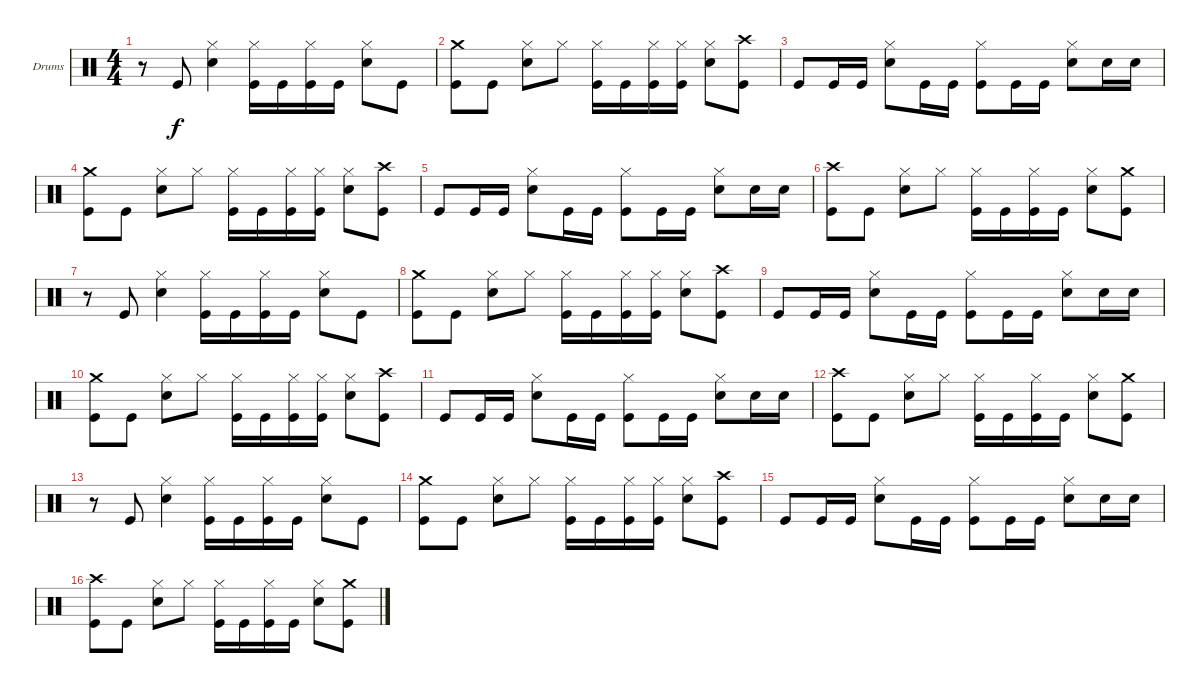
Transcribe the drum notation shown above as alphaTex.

\bracketExtendMode groupsimilarinstruments
\firstSystemTrackNameOrientation horizontal
\otherSystemsTrackNameOrientation horizontal
\track ("Percussion" "Drums") {instrument percussion}
\staff {score}
\articulation defaults
\ts (4 4)
\tempo (142 hide)
\clef neutral
\ks c
r.8{dy f} "Kick (hit)".8 ("Hi-Hat (closed)" "Snare (hit) 2").4 ("Hi-Hat (closed)" "Kick (hit)").16 "Kick (hit)".16 ("Hi-Hat (closed)" "Kick (hit)").16 "Kick (hit)".16 ("Hi-Hat (closed)" "Snare (hit) 2").8 "Kick (hit)".8 |
("Crash medium (hit)" "Kick (hit)").8 "Kick (hit)".8 ("Hi-Hat (closed)" "Snare (hit) 2").8 "Hi-Hat (closed)".8 ("Hi-Hat (closed)" "Kick (hit)").16 "Kick (hit)".16 ("Hi-Hat (closed)" "Kick (hit)").16 ("Hi-Hat (closed)" "Kick (hit)").16 ("Hi-Hat (closed)" "Snare (hit) 2").8 ("Crash high (hit)" "Kick (hit)").8 |
"Kick (hit)".8 "Kick (hit)".16 "Kick (hit)".16 ("Hi-Hat (closed)" "Snare (hit) 2").8 "Kick (hit)".16 "Kick (hit)".16 ("Hi-Hat (closed)" "Kick (hit)").8 "Kick (hit)".16 "Kick (hit)".16 ("Hi-Hat (closed)" "Snare (hit) 2").8 "Snare (hit) 2".16 "Snare (hit) 2".16 |
("Crash medium (hit)" "Kick (hit)").8 "Kick (hit)".8 ("Hi-Hat (closed)" "Snare (hit) 2").8 "Hi-Hat (closed)".8 ("Hi-Hat (closed)" "Kick (hit)").16 "Kick (hit)".16 ("Hi-Hat (closed)" "Kick (hit)").16 ("Hi-Hat (closed)" "Kick (hit)").16 ("Hi-Hat (closed)" "Snare (hit) 2").8 ("Crash high (hit)" "Kick (hit)").8 |
"Kick (hit)".8 "Kick (hit)".16 "Kick (hit)".16 ("Hi-Hat (closed)" "Snare (hit) 2").8 "Kick (hit)".16 "Kick (hit)".16 ("Hi-Hat (closed)" "Kick (hit)").8 "Kick (hit)".16 "Kick (hit)".16 ("Hi-Hat (closed)" "Snare (hit) 2").8 "Snare (hit) 2".16 "Snare (hit) 2".16 |
("Crash high (hit)" "Kick (hit)").8 "Kick (hit)".8 ("Hi-Hat (closed)" "Snare (hit) 2").8 "Hi-Hat (closed)".8 ("Hi-Hat (closed)" "Kick (hit)").16 "Kick (hit)".16 ("Hi-Hat (closed)" "Kick (hit)").16 "Kick (hit)".16 ("Hi-Hat (closed)" "Snare (hit) 2").8 ("Crash medium (hit)" "Kick (hit)").8 |
r.8 "Kick (hit)".8 ("Hi-Hat (closed)" "Snare (hit) 2").4 ("Hi-Hat (closed)" "Kick (hit)").16 "Kick (hit)".16 ("Hi-Hat (closed)" "Kick (hit)").16 "Kick (hit)".16 ("Hi-Hat (closed)" "Snare (hit) 2").8 "Kick (hit)".8 |
("Crash medium (hit)" "Kick (hit)").8 "Kick (hit)".8 ("Hi-Hat (closed)" "Snare (hit) 2").8 "Hi-Hat (closed)".8 ("Hi-Hat (closed)" "Kick (hit)").16 "Kick (hit)".16 ("Hi-Hat (closed)" "Kick (hit)").16 ("Hi-Hat (closed)" "Kick (hit)").16 ("Hi-Hat (closed)" "Snare (hit) 2").8 ("Crash high (hit)" "Kick (hit)").8 |
"Kick (hit)".8 "Kick (hit)".16 "Kick (hit)".16 ("Hi-Hat (closed)" "Snare (hit) 2").8 "Kick (hit)".16 "Kick (hit)".16 ("Hi-Hat (closed)" "Kick (hit)").8 "Kick (hit)".16 "Kick (hit)".16 ("Hi-Hat (closed)" "Snare (hit) 2").8 "Snare (hit) 2".16 "Snare (hit) 2".16 |
("Crash medium (hit)" "Kick (hit)").8 "Kick (hit)".8 ("Hi-Hat (closed)" "Snare (hit) 2").8 "Hi-Hat (closed)".8 ("Hi-Hat (closed)" "Kick (hit)").16 "Kick (hit)".16 ("Hi-Hat (closed)" "Kick (hit)").16 ("Hi-Hat (closed)" "Kick (hit)").16 ("Hi-Hat (closed)" "Snare (hit) 2").8 ("Crash high (hit)" "Kick (hit)").8 |
"Kick (hit)".8 "Kick (hit)".16 "Kick (hit)".16 ("Hi-Hat (closed)" "Snare (hit) 2").8 "Kick (hit)".16 "Kick (hit)".16 ("Hi-Hat (closed)" "Kick (hit)").8 "Kick (hit)".16 "Kick (hit)".16 ("Hi-Hat (closed)" "Snare (hit) 2").8 "Snare (hit) 2".16 "Snare (hit) 2".16 |
("Crash high (hit)" "Kick (hit)").8 "Kick (hit)".8 ("Hi-Hat (closed)" "Snare (hit) 2").8 "Hi-Hat (closed)".8 ("Hi-Hat (closed)" "Kick (hit)").16 "Kick (hit)".16 ("Hi-Hat (closed)" "Kick (hit)").16 "Kick (hit)".16 ("Hi-Hat (closed)" "Snare (hit) 2").8 ("Crash medium (hit)" "Kick (hit)").8 |
r.8 "Kick (hit)".8 ("Hi-Hat (closed)" "Snare (hit) 2").4 ("Hi-Hat (closed)" "Kick (hit)").16 "Kick (hit)".16 ("Hi-Hat (closed)" "Kick (hit)").16 "Kick (hit)".16 ("Hi-Hat (closed)" "Snare (hit) 2").8 "Kick (hit)".8 |
("Crash medium (hit)" "Kick (hit)").8 "Kick (hit)".8 ("Hi-Hat (closed)" "Snare (hit) 2").8 "Hi-Hat (closed)".8 ("Hi-Hat (closed)" "Kick (hit)").16 "Kick (hit)".16 ("Hi-Hat (closed)" "Kick (hit)").16 ("Hi-Hat (closed)" "Kick (hit)").16 ("Hi-Hat (closed)" "Snare (hit) 2").8 ("Crash high (hit)" "Kick (hit)").8 |
"Kick (hit)".8 "Kick (hit)".16 "Kick (hit)".16 ("Hi-Hat (closed)" "Snare (hit) 2").8 "Kick (hit)".16 "Kick (hit)".16 ("Hi-Hat (closed)" "Kick (hit)").8 "Kick (hit)".16 "Kick (hit)".16 ("Hi-Hat (closed)" "Snare (hit) 2").8 "Snare (hit) 2".16 "Snare (hit) 2".16 |
("Crash high (hit)" "Kick (hit)").8 "Kick (hit)".8 ("Hi-Hat (closed)" "Snare (hit) 2").8 "Hi-Hat (closed)".8 ("Hi-Hat (closed)" "Kick (hit)").16 "Kick (hit)".16 ("Hi-Hat (closed)" "Kick (hit)").16 "Kick (hit)".16 ("Hi-Hat (closed)" "Snare (hit) 2").8 ("Crash medium (hit)" "Kick (hit)").8
